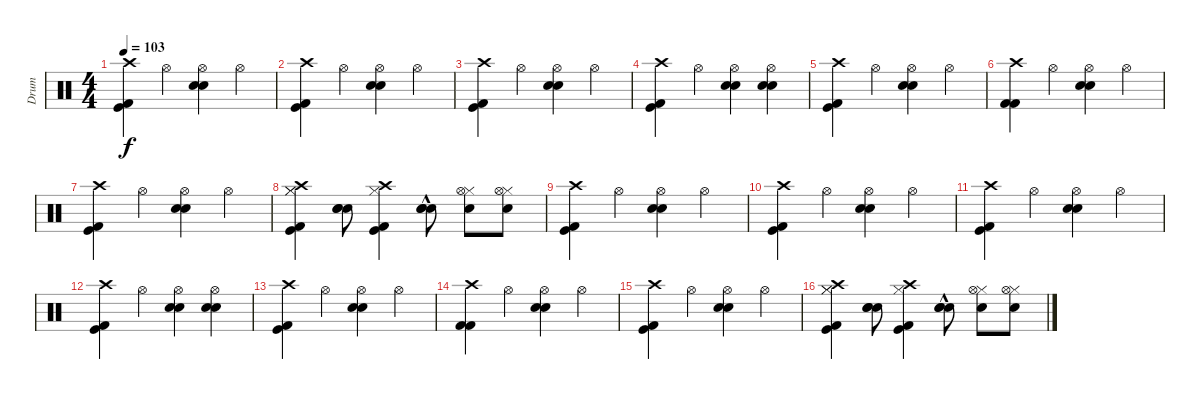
\track ("Drum" "Drum") {instrument percussion}
\staff {score}
\articulation defaults
\ts (4 4)
\tempo 103
\clef neutral
\ks c
("Kick (hit)" "Kick (hit) 2" "Crash high (hit)").4{dy f} "Hi-Hat (open)".4 ("Hi-Hat (open)" "Electric Snare (hit)" "Snare (hit) 2").4 "Hi-Hat (open)".4 |
("Kick (hit)" "Kick (hit) 2" "Crash high (hit)").4 "Hi-Hat (open)".4 ("Hi-Hat (open)" "Electric Snare (hit)" "Snare (hit) 2").4 "Hi-Hat (open)".4 |
("Kick (hit)" "Kick (hit) 2" "Crash high (hit)").4 "Hi-Hat (open)".4 ("Hi-Hat (open)" "Electric Snare (hit)" "Snare (hit) 2").4 "Hi-Hat (open)".4 |
("Kick (hit)" "Kick (hit) 2" "Crash high (hit)").4 "Hi-Hat (open)".4 ("Hi-Hat (open)" "Electric Snare (hit)" "Snare (hit) 2").4 ("Hi-Hat (open)" "Electric Snare (hit)" "Snare (hit) 2").4 |
("Kick (hit)" "Kick (hit) 2" "Crash high (hit)").4 "Hi-Hat (open)".4 ("Hi-Hat (open)" "Electric Snare (hit)" "Snare (hit) 2").4 "Hi-Hat (open)".4 |
("Kick (hit) 2" "Kick (hit) 2" "Crash high (hit)").4 "Hi-Hat (open)".4 ("Hi-Hat (open)" "Electric Snare (hit)" "Snare (hit) 2").4 "Hi-Hat (open)".4 |
("Kick (hit)" "Kick (hit) 2" "Crash high (hit)").4 "Hi-Hat (open)".4 ("Hi-Hat (open)" "Electric Snare (hit)" "Snare (hit) 2").4 "Hi-Hat (open)".4 |
("Hi-Hat (closed)" "Kick (hit)" "Kick (hit) 2" "Crash high (hit)" "Hi-Hat (closed)").4 ("Snare (hit) 2" "Electric Snare (hit)" "Electric Snare (hit)").8 ("Kick (hit)" "Kick (hit) 2" "Crash high (hit)" "Hi-Hat (closed)").4 ("Snare (hit) 2"{hac} "Electric Snare (hit)" "Electric Snare (hit)").8 ("Snare (hit) 2" "Hi-Hat (closed)" "Hi-Hat (open)").8 ("Snare (hit) 2" "Hi-Hat (closed)" "Hi-Hat (open)").8 |
("Kick (hit)" "Kick (hit) 2" "Crash high (hit)").4 "Hi-Hat (open)".4 ("Hi-Hat (open)" "Electric Snare (hit)" "Snare (hit) 2").4 "Hi-Hat (open)".4 |
("Kick (hit)" "Kick (hit) 2" "Crash high (hit)").4 "Hi-Hat (open)".4 ("Hi-Hat (open)" "Electric Snare (hit)" "Snare (hit) 2").4 "Hi-Hat (open)".4 |
("Kick (hit)" "Kick (hit) 2" "Crash high (hit)").4 "Hi-Hat (open)".4 ("Hi-Hat (open)" "Electric Snare (hit)" "Snare (hit) 2").4 "Hi-Hat (open)".4 |
("Kick (hit)" "Kick (hit) 2" "Crash high (hit)").4 "Hi-Hat (open)".4 ("Hi-Hat (open)" "Electric Snare (hit)" "Snare (hit) 2").4 ("Hi-Hat (open)" "Electric Snare (hit)" "Snare (hit) 2").4 |
("Kick (hit)" "Kick (hit) 2" "Crash high (hit)").4 "Hi-Hat (open)".4 ("Hi-Hat (open)" "Electric Snare (hit)" "Snare (hit) 2").4 "Hi-Hat (open)".4 |
("Kick (hit) 2" "Kick (hit) 2" "Crash high (hit)").4 "Hi-Hat (open)".4 ("Hi-Hat (open)" "Electric Snare (hit)" "Snare (hit) 2").4 "Hi-Hat (open)".4 |
("Kick (hit)" "Kick (hit) 2" "Crash high (hit)").4 "Hi-Hat (open)".4 ("Hi-Hat (open)" "Electric Snare (hit)" "Snare (hit) 2").4 "Hi-Hat (open)".4 |
("Hi-Hat (closed)" "Kick (hit)" "Kick (hit) 2" "Crash high (hit)" "Hi-Hat (closed)").4 ("Snare (hit) 2" "Electric Snare (hit)" "Electric Snare (hit)").8 ("Kick (hit)" "Kick (hit) 2" "Crash high (hit)" "Hi-Hat (closed)").4 ("Snare (hit) 2"{hac} "Electric Snare (hit)" "Electric Snare (hit)").8 ("Snare (hit) 2" "Hi-Hat (closed)" "Hi-Hat (open)").8 ("Snare (hit) 2" "Hi-Hat (closed)" "Hi-Hat (open)").8
